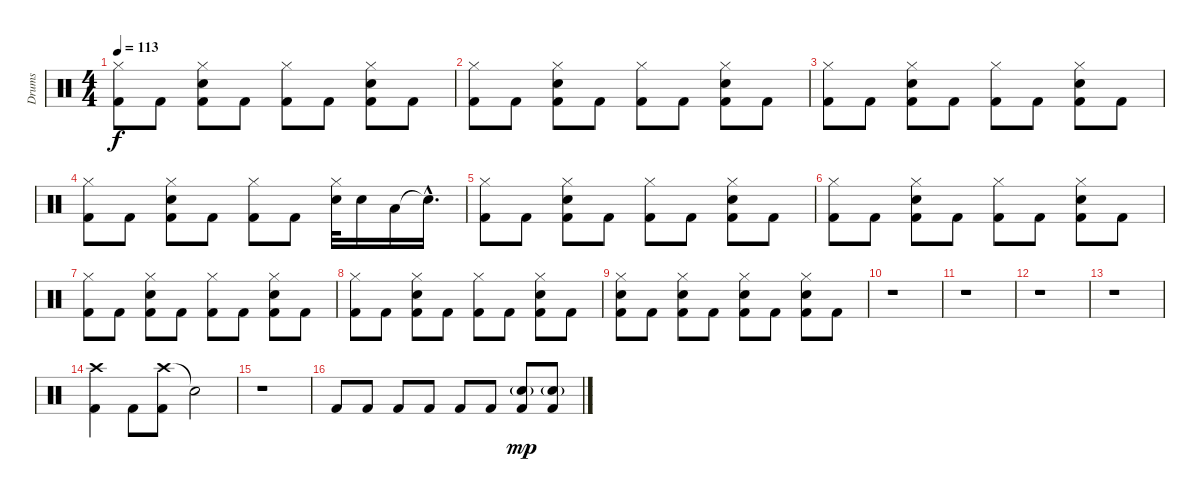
\track ("Drums" "Drums") {instrument percussion}
\staff {score}
\articulation defaults
\ts (4 4)
\tempo 113
\clef neutral
\ks c
("Hi-Hat (closed)" "Kick (hit) 2").8{dy f} "Kick (hit) 2".8 ("Hi-Hat (closed)" "Electric Snare (hit)" "Kick (hit) 2").8 "Kick (hit) 2".8 ("Hi-Hat (closed)" "Kick (hit) 2").8 "Kick (hit) 2".8 ("Hi-Hat (closed)" "Electric Snare (hit)" "Kick (hit) 2").8 "Kick (hit) 2".8 |
("Hi-Hat (closed)" "Kick (hit) 2").8 "Kick (hit) 2".8 ("Hi-Hat (closed)" "Electric Snare (hit)" "Kick (hit) 2").8 "Kick (hit) 2".8 ("Hi-Hat (closed)" "Kick (hit) 2").8 "Kick (hit) 2".8 ("Hi-Hat (closed)" "Electric Snare (hit)" "Kick (hit) 2").8 "Kick (hit) 2".8 |
("Hi-Hat (closed)" "Kick (hit) 2").8 "Kick (hit) 2".8 ("Hi-Hat (closed)" "Electric Snare (hit)" "Kick (hit) 2").8 "Kick (hit) 2".8 ("Hi-Hat (closed)" "Kick (hit) 2").8 "Kick (hit) 2".8 ("Hi-Hat (closed)" "Electric Snare (hit)" "Kick (hit) 2").8 "Kick (hit) 2".8 |
("Hi-Hat (closed)" "Kick (hit) 2").8 "Kick (hit) 2".8 ("Hi-Hat (closed)" "Electric Snare (hit)" "Kick (hit) 2").8 "Kick (hit) 2".8 ("Hi-Hat (closed)" "Kick (hit) 2").8 "Kick (hit) 2".8 ("Hi-Hat (closed)" "Electric Snare (hit)").32 "Electric Snare (hit)".16 "Low Tom (hit)".16 "Electric Snare (hit)"{hac t}.16{d} |
("Hi-Hat (closed)" "Kick (hit) 2").8 "Kick (hit) 2".8 ("Hi-Hat (closed)" "Electric Snare (hit)" "Kick (hit) 2").8 "Kick (hit) 2".8 ("Hi-Hat (closed)" "Kick (hit) 2").8 "Kick (hit) 2".8 ("Hi-Hat (closed)" "Electric Snare (hit)" "Kick (hit) 2").8 "Kick (hit) 2".8 |
("Hi-Hat (closed)" "Kick (hit) 2").8 "Kick (hit) 2".8 ("Hi-Hat (closed)" "Electric Snare (hit)" "Kick (hit) 2").8 "Kick (hit) 2".8 ("Hi-Hat (closed)" "Kick (hit) 2").8 "Kick (hit) 2".8 ("Hi-Hat (closed)" "Electric Snare (hit)" "Kick (hit) 2").8 "Kick (hit) 2".8 |
("Hi-Hat (closed)" "Kick (hit) 2").8 "Kick (hit) 2".8 ("Hi-Hat (closed)" "Electric Snare (hit)" "Kick (hit) 2").8 "Kick (hit) 2".8 ("Hi-Hat (closed)" "Kick (hit) 2").8 "Kick (hit) 2".8 ("Hi-Hat (closed)" "Electric Snare (hit)" "Kick (hit) 2").8 "Kick (hit) 2".8 |
("Hi-Hat (closed)" "Kick (hit) 2").8 "Kick (hit) 2".8 ("Hi-Hat (closed)" "Electric Snare (hit)" "Kick (hit) 2").8 "Kick (hit) 2".8 ("Hi-Hat (closed)" "Kick (hit) 2").8 "Kick (hit) 2".8 ("Hi-Hat (closed)" "Electric Snare (hit)" "Kick (hit) 2").8 "Kick (hit) 2".8 |
("Hi-Hat (closed)" "Electric Snare (hit)" "Kick (hit) 2").8 "Kick (hit) 2".8 ("Hi-Hat (closed)" "Electric Snare (hit)" "Kick (hit) 2").8 "Kick (hit) 2".8 ("Hi-Hat (closed)" "Electric Snare (hit)" "Kick (hit) 2").8 "Kick (hit) 2".8 ("Hi-Hat (closed)" "Electric Snare (hit)" "Kick (hit) 2").8 "Kick (hit) 2".8 |
r.1 |
r.1 |
r.1 |
r.1 |
("Crash high (hit)" "Kick (hit) 2").4 "Kick (hit) 2".8 ("Crash high (hit)" "Kick (hit) 2").8 "Snare (hit)"{t}.2 |
r.1 |
"Kick (hit) 2".8 "Kick (hit) 2".8 "Kick (hit) 2".8 "Kick (hit) 2".8 "Kick (hit) 2".8 "Kick (hit) 2".8 ("Electric Snare (hit)"{g} "Kick (hit) 2").8{dy mp} ("Electric Snare (hit)"{g} "Kick (hit) 2").8
